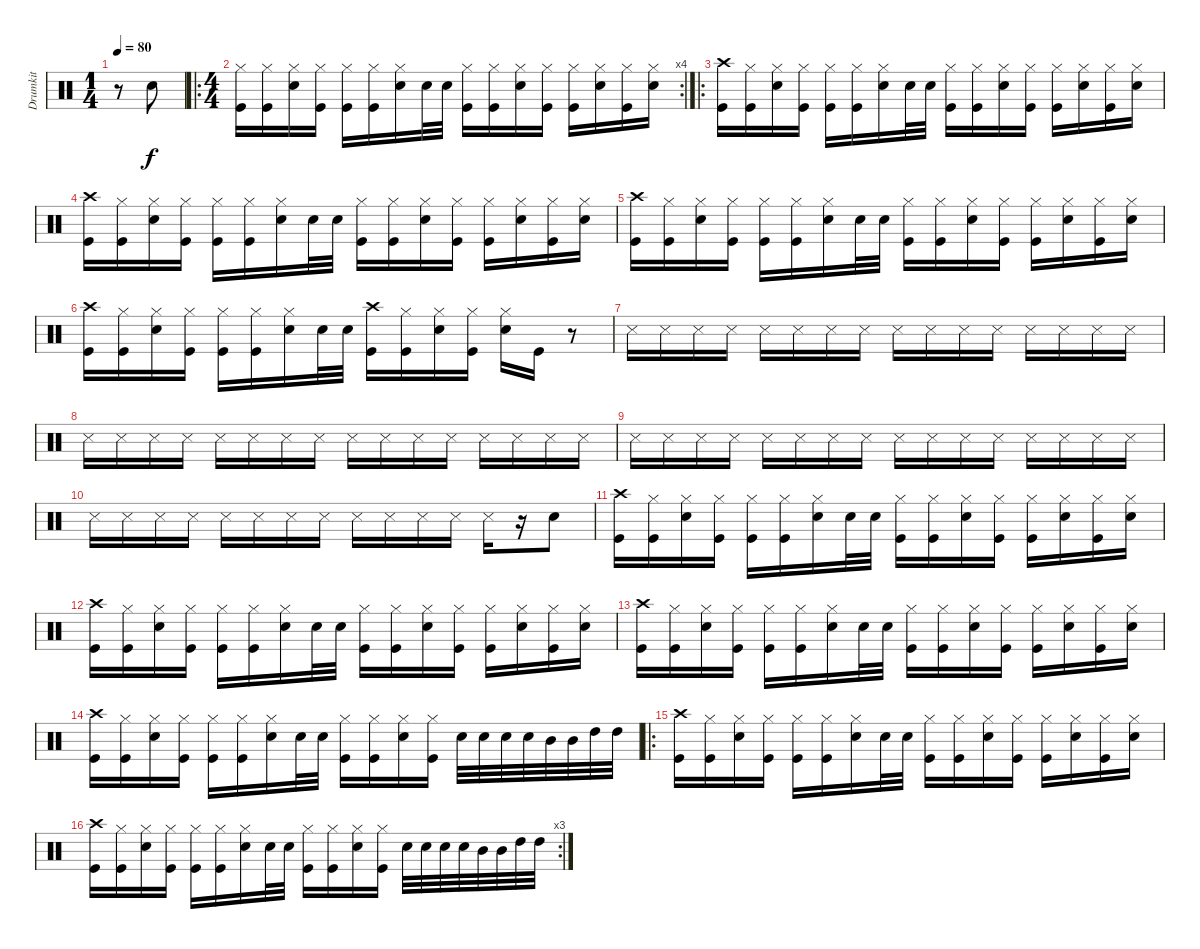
\track ("Drumkit" "Drumkit") {instrument percussion}
\staff {score}
\articulation defaults
\ts (1 4)
\tempo 80
\clef neutral
\ks c
r.8{dy f} "Snare (hit) 2".8 |
\ro
\rc 4
\ts (4 4)
("Hi-Hat (closed)" "Kick (hit)").16 ("Hi-Hat (closed)" "Kick (hit)").16 ("Hi-Hat (closed)" "Snare (hit) 2").16 ("Hi-Hat (closed)" "Kick (hit)").16 ("Hi-Hat (closed)" "Kick (hit)").16 ("Hi-Hat (closed)" "Kick (hit)").16 ("Hi-Hat (closed)" "Snare (hit) 2").16 "Snare (hit) 2".32 "Snare (hit) 2".32 ("Hi-Hat (closed)" "Kick (hit)").16 ("Hi-Hat (closed)" "Kick (hit)").16 ("Hi-Hat (closed)" "Snare (hit) 2").16 ("Hi-Hat (closed)" "Kick (hit)").16 ("Hi-Hat (closed)" "Kick (hit)").16 ("Hi-Hat (closed)" "Snare (hit) 2").16 ("Hi-Hat (closed)" "Kick (hit)").16 ("Hi-Hat (closed)" "Snare (hit) 2").16 |
\ro
("Crash high (hit)" "Kick (hit)").16 ("Hi-Hat (closed)" "Kick (hit)").16 ("Hi-Hat (closed)" "Snare (hit) 2").16 ("Hi-Hat (closed)" "Kick (hit)").16 ("Hi-Hat (closed)" "Kick (hit)").16 ("Hi-Hat (closed)" "Kick (hit)").16 ("Hi-Hat (closed)" "Snare (hit) 2").16 "Snare (hit) 2".32 "Snare (hit) 2".32 ("Hi-Hat (closed)" "Kick (hit)").16 ("Hi-Hat (closed)" "Kick (hit)").16 ("Hi-Hat (closed)" "Snare (hit) 2").16 ("Hi-Hat (closed)" "Kick (hit)").16 ("Hi-Hat (closed)" "Kick (hit)").16 ("Hi-Hat (closed)" "Snare (hit) 2").16 ("Hi-Hat (closed)" "Kick (hit)").16 ("Hi-Hat (closed)" "Snare (hit) 2").16 |
("Crash high (hit)" "Kick (hit)").16 ("Hi-Hat (closed)" "Kick (hit)").16 ("Hi-Hat (closed)" "Snare (hit) 2").16 ("Hi-Hat (closed)" "Kick (hit)").16 ("Hi-Hat (closed)" "Kick (hit)").16 ("Hi-Hat (closed)" "Kick (hit)").16 ("Hi-Hat (closed)" "Snare (hit) 2").16 "Snare (hit) 2".32 "Snare (hit) 2".32 ("Hi-Hat (closed)" "Kick (hit)").16 ("Hi-Hat (closed)" "Kick (hit)").16 ("Hi-Hat (closed)" "Snare (hit) 2").16 ("Hi-Hat (closed)" "Kick (hit)").16 ("Hi-Hat (closed)" "Kick (hit)").16 ("Hi-Hat (closed)" "Snare (hit) 2").16 ("Hi-Hat (closed)" "Kick (hit)").16 ("Hi-Hat (closed)" "Snare (hit) 2").16 |
("Crash high (hit)" "Kick (hit)").16 ("Hi-Hat (closed)" "Kick (hit)").16 ("Hi-Hat (closed)" "Snare (hit) 2").16 ("Hi-Hat (closed)" "Kick (hit)").16 ("Hi-Hat (closed)" "Kick (hit)").16 ("Hi-Hat (closed)" "Kick (hit)").16 ("Hi-Hat (closed)" "Snare (hit) 2").16 "Snare (hit) 2".32 "Snare (hit) 2".32 ("Hi-Hat (closed)" "Kick (hit)").16 ("Hi-Hat (closed)" "Kick (hit)").16 ("Hi-Hat (closed)" "Snare (hit) 2").16 ("Hi-Hat (closed)" "Kick (hit)").16 ("Hi-Hat (closed)" "Kick (hit)").16 ("Hi-Hat (closed)" "Snare (hit) 2").16 ("Hi-Hat (closed)" "Kick (hit)").16 ("Hi-Hat (closed)" "Snare (hit) 2").16 |
("Crash high (hit)" "Kick (hit)").16 ("Hi-Hat (closed)" "Kick (hit)").16 ("Hi-Hat (closed)" "Snare (hit) 2").16 ("Hi-Hat (closed)" "Kick (hit)").16 ("Hi-Hat (closed)" "Kick (hit)").16 ("Hi-Hat (closed)" "Kick (hit)").16 ("Hi-Hat (closed)" "Snare (hit) 2").16 "Snare (hit) 2".32 "Snare (hit) 2".32 ("Crash high (hit)" "Kick (hit)").16 ("Hi-Hat (closed)" "Kick (hit)").16 ("Hi-Hat (closed)" "Snare (hit) 2").16 ("Hi-Hat (closed)" "Kick (hit)").16 ("Hi-Hat (closed)" "Snare (hit) 2").16 "Kick (hit)".16 r.8 |
"Snare (side stick) 3".16 "Snare (side stick) 3".16 "Snare (side stick) 3".16 "Snare (side stick) 3".16 "Snare (side stick) 3".16 "Snare (side stick) 3".16 "Snare (side stick) 3".16 "Snare (side stick) 3".16 "Snare (side stick) 3".16 "Snare (side stick) 3".16 "Snare (side stick) 3".16 "Snare (side stick) 3".16 "Snare (side stick) 3".16 "Snare (side stick) 3".16 "Snare (side stick) 3".16 "Snare (side stick) 3".16 |
"Snare (side stick) 3".16 "Snare (side stick) 3".16 "Snare (side stick) 3".16 "Snare (side stick) 3".16 "Snare (side stick) 3".16 "Snare (side stick) 3".16 "Snare (side stick) 3".16 "Snare (side stick) 3".16 "Snare (side stick) 3".16 "Snare (side stick) 3".16 "Snare (side stick) 3".16 "Snare (side stick) 3".16 "Snare (side stick) 3".16 "Snare (side stick) 3".16 "Snare (side stick) 3".16 "Snare (side stick) 3".16 |
"Snare (side stick) 3".16 "Snare (side stick) 3".16 "Snare (side stick) 3".16 "Snare (side stick) 3".16 "Snare (side stick) 3".16 "Snare (side stick) 3".16 "Snare (side stick) 3".16 "Snare (side stick) 3".16 "Snare (side stick) 3".16 "Snare (side stick) 3".16 "Snare (side stick) 3".16 "Snare (side stick) 3".16 "Snare (side stick) 3".16 "Snare (side stick) 3".16 "Snare (side stick) 3".16 "Snare (side stick) 3".16 |
"Snare (side stick) 3".16 "Snare (side stick) 3".16 "Snare (side stick) 3".16 "Snare (side stick) 3".16 "Snare (side stick) 3".16 "Snare (side stick) 3".16 "Snare (side stick) 3".16 "Snare (side stick) 3".16 "Snare (side stick) 3".16 "Snare (side stick) 3".16 "Snare (side stick) 3".16 "Snare (side stick) 3".16 "Snare (side stick) 3".16 r.16 "Snare (hit) 2".8 |
("Crash high (hit)" "Kick (hit)").16 ("Hi-Hat (closed)" "Kick (hit)").16 ("Hi-Hat (closed)" "Snare (hit) 2").16 ("Hi-Hat (closed)" "Kick (hit)").16 ("Hi-Hat (closed)" "Kick (hit)").16 ("Hi-Hat (closed)" "Kick (hit)").16 ("Hi-Hat (closed)" "Snare (hit) 2").16 "Snare (hit) 2".32 "Snare (hit) 2".32 ("Hi-Hat (closed)" "Kick (hit)").16 ("Hi-Hat (closed)" "Kick (hit)").16 ("Hi-Hat (closed)" "Snare (hit) 2").16 ("Hi-Hat (closed)" "Kick (hit)").16 ("Hi-Hat (closed)" "Kick (hit)").16 ("Hi-Hat (closed)" "Snare (hit) 2").16 ("Hi-Hat (closed)" "Kick (hit)").16 ("Hi-Hat (closed)" "Snare (hit) 2").16 |
("Crash high (hit)" "Kick (hit)").16 ("Hi-Hat (closed)" "Kick (hit)").16 ("Hi-Hat (closed)" "Snare (hit) 2").16 ("Hi-Hat (closed)" "Kick (hit)").16 ("Hi-Hat (closed)" "Kick (hit)").16 ("Hi-Hat (closed)" "Kick (hit)").16 ("Hi-Hat (closed)" "Snare (hit) 2").16 "Snare (hit) 2".32 "Snare (hit) 2".32 ("Hi-Hat (closed)" "Kick (hit)").16 ("Hi-Hat (closed)" "Kick (hit)").16 ("Hi-Hat (closed)" "Snare (hit) 2").16 ("Hi-Hat (closed)" "Kick (hit)").16 ("Hi-Hat (closed)" "Kick (hit)").16 ("Hi-Hat (closed)" "Snare (hit) 2").16 ("Hi-Hat (closed)" "Kick (hit)").16 ("Hi-Hat (closed)" "Snare (hit) 2").16 |
("Crash high (hit)" "Kick (hit)").16 ("Hi-Hat (closed)" "Kick (hit)").16 ("Hi-Hat (closed)" "Snare (hit) 2").16 ("Hi-Hat (closed)" "Kick (hit)").16 ("Hi-Hat (closed)" "Kick (hit)").16 ("Hi-Hat (closed)" "Kick (hit)").16 ("Hi-Hat (closed)" "Snare (hit) 2").16 "Snare (hit) 2".32 "Snare (hit) 2".32 ("Hi-Hat (closed)" "Kick (hit)").16 ("Hi-Hat (closed)" "Kick (hit)").16 ("Hi-Hat (closed)" "Snare (hit) 2").16 ("Hi-Hat (closed)" "Kick (hit)").16 ("Hi-Hat (closed)" "Kick (hit)").16 ("Hi-Hat (closed)" "Snare (hit) 2").16 ("Hi-Hat (closed)" "Kick (hit)").16 ("Hi-Hat (closed)" "Snare (hit) 2").16 |
("Crash high (hit)" "Kick (hit)").16 ("Hi-Hat (closed)" "Kick (hit)").16 ("Hi-Hat (closed)" "Snare (hit) 2").16 ("Hi-Hat (closed)" "Kick (hit)").16 ("Hi-Hat (closed)" "Kick (hit)").16 ("Hi-Hat (closed)" "Kick (hit)").16 ("Hi-Hat (closed)" "Snare (hit) 2").16 "Snare (hit) 2".32 "Snare (hit) 2".32 ("Hi-Hat (closed)" "Kick (hit)").16 ("Hi-Hat (closed)" "Kick (hit)").16 ("Hi-Hat (closed)" "Snare (hit) 2").16 ("Hi-Hat (closed)" "Kick (hit)").16 "Snare (hit) 2".32 "Snare (hit) 2".32 "Snare (hit) 2".32 "Snare (hit) 2".32 "Mid Tom (hit)".32 "Mid Tom (hit)".32 "High Tom (hit)".32 "High Tom (hit)".32 |
\ro
("Crash high (hit)" "Kick (hit)").16 ("Hi-Hat (closed)" "Kick (hit)").16 ("Hi-Hat (closed)" "Snare (hit) 2").16 ("Hi-Hat (closed)" "Kick (hit)").16 ("Hi-Hat (closed)" "Kick (hit)").16 ("Hi-Hat (closed)" "Kick (hit)").16 ("Hi-Hat (closed)" "Snare (hit) 2").16 "Snare (hit) 2".32 "Snare (hit) 2".32 ("Hi-Hat (closed)" "Kick (hit)").16 ("Hi-Hat (closed)" "Kick (hit)").16 ("Hi-Hat (closed)" "Snare (hit) 2").16 ("Hi-Hat (closed)" "Kick (hit)").16 ("Hi-Hat (closed)" "Kick (hit)").16 ("Hi-Hat (closed)" "Snare (hit) 2").16 ("Hi-Hat (closed)" "Kick (hit)").16 ("Hi-Hat (closed)" "Snare (hit) 2").16 |
\rc 3
("Crash high (hit)" "Kick (hit)").16 ("Hi-Hat (closed)" "Kick (hit)").16 ("Hi-Hat (closed)" "Snare (hit) 2").16 ("Hi-Hat (closed)" "Kick (hit)").16 ("Hi-Hat (closed)" "Kick (hit)").16 ("Hi-Hat (closed)" "Kick (hit)").16 ("Hi-Hat (closed)" "Snare (hit) 2").16 "Snare (hit) 2".32 "Snare (hit) 2".32 ("Hi-Hat (closed)" "Kick (hit)").16 ("Hi-Hat (closed)" "Kick (hit)").16 ("Hi-Hat (closed)" "Snare (hit) 2").16 ("Hi-Hat (closed)" "Kick (hit)").16 "Snare (hit) 2".32 "Snare (hit) 2".32 "Snare (hit) 2".32 "Snare (hit) 2".32 "Mid Tom (hit)".32 "Mid Tom (hit)".32 "High Tom (hit)".32 "High Tom (hit)".32
